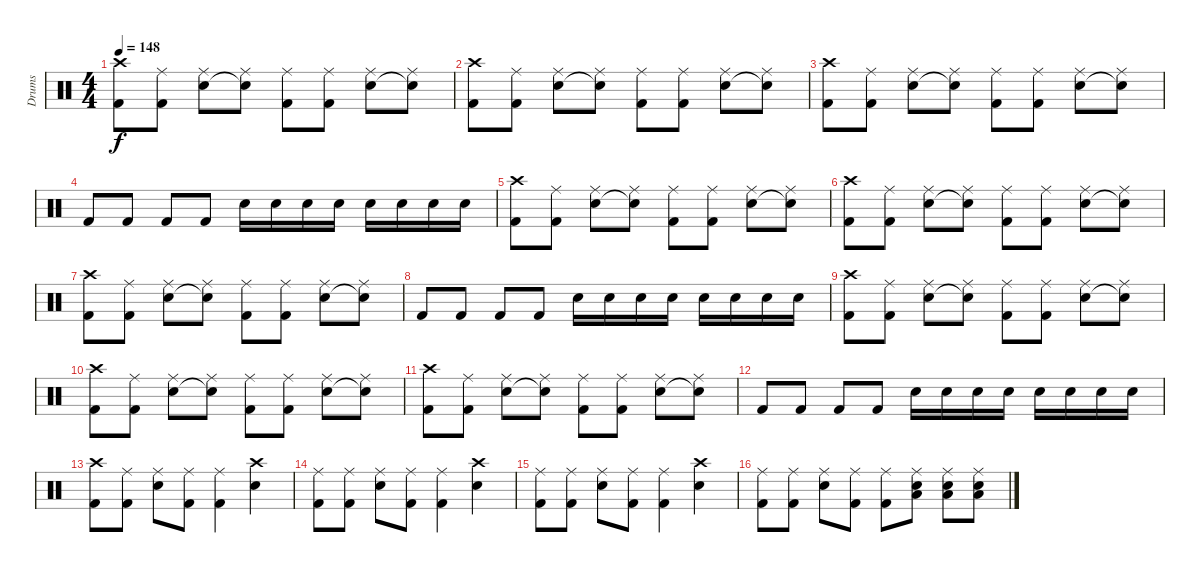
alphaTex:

\track ("Drums" "Drums") {instrument percussion}
\staff {score}
\articulation defaults
\ts (4 4)
\tempo 148
\clef neutral
\ks c
("Crash high (hit)" "Kick (hit) 2").8{dy f} ("Ride (middle)" "Kick (hit) 2").8 ("Ride (middle)" "Snare (hit) 2").8 ("Ride (middle)" "Snare (hit)"{t}).8 ("Ride (middle)" "Kick (hit) 2").8 ("Ride (middle)" "Kick (hit) 2").8 ("Ride (middle)" "Snare (hit) 2").8 ("Ride (middle)" "Snare (hit)"{t}).8 |
("Crash high (hit)" "Kick (hit) 2").8 ("Ride (middle)" "Kick (hit) 2").8 ("Ride (middle)" "Snare (hit) 2").8 ("Ride (middle)" "Snare (hit)"{t}).8 ("Ride (middle)" "Kick (hit) 2").8 ("Ride (middle)" "Kick (hit) 2").8 ("Ride (middle)" "Snare (hit) 2").8 ("Ride (middle)" "Snare (hit)"{t}).8 |
("Crash high (hit)" "Kick (hit) 2").8 ("Ride (middle)" "Kick (hit) 2").8 ("Ride (middle)" "Snare (hit) 2").8 ("Ride (middle)" "Snare (hit)"{t}).8 ("Ride (middle)" "Kick (hit) 2").8 ("Ride (middle)" "Kick (hit) 2").8 ("Ride (middle)" "Snare (hit) 2").8 ("Ride (middle)" "Snare (hit)"{t}).8 |
"Kick (hit) 2".8 "Kick (hit) 2".8 "Kick (hit) 2".8 "Kick (hit) 2".8 "Snare (hit) 2".16 "Snare (hit) 2".16 "Snare (hit) 2".16 "Snare (hit) 2".16 "Snare (hit) 2".16 "Snare (hit) 2".16 "Snare (hit) 2".16 "Snare (hit) 2".16 |
("Crash high (hit)" "Kick (hit) 2").8 ("Ride (middle)" "Kick (hit) 2").8 ("Ride (middle)" "Snare (hit) 2").8 ("Ride (middle)" "Snare (hit)"{t}).8 ("Ride (middle)" "Kick (hit) 2").8 ("Ride (middle)" "Kick (hit) 2").8 ("Ride (middle)" "Snare (hit) 2").8 ("Ride (middle)" "Snare (hit)"{t}).8 |
("Crash high (hit)" "Kick (hit) 2").8 ("Ride (middle)" "Kick (hit) 2").8 ("Ride (middle)" "Snare (hit) 2").8 ("Ride (middle)" "Snare (hit)"{t}).8 ("Ride (middle)" "Kick (hit) 2").8 ("Ride (middle)" "Kick (hit) 2").8 ("Ride (middle)" "Snare (hit) 2").8 ("Ride (middle)" "Snare (hit)"{t}).8 |
("Crash high (hit)" "Kick (hit) 2").8 ("Ride (middle)" "Kick (hit) 2").8 ("Ride (middle)" "Snare (hit) 2").8 ("Ride (middle)" "Snare (hit)"{t}).8 ("Ride (middle)" "Kick (hit) 2").8 ("Ride (middle)" "Kick (hit) 2").8 ("Ride (middle)" "Snare (hit) 2").8 ("Ride (middle)" "Snare (hit)"{t}).8 |
"Kick (hit) 2".8 "Kick (hit) 2".8 "Kick (hit) 2".8 "Kick (hit) 2".8 "Snare (hit) 2".16 "Snare (hit) 2".16 "Snare (hit) 2".16 "Snare (hit) 2".16 "Snare (hit) 2".16 "Snare (hit) 2".16 "Snare (hit) 2".16 "Snare (hit) 2".16 |
("Crash high (hit)" "Kick (hit) 2").8 ("Ride (middle)" "Kick (hit) 2").8 ("Ride (middle)" "Snare (hit) 2").8 ("Ride (middle)" "Snare (hit)"{t}).8 ("Ride (middle)" "Kick (hit) 2").8 ("Ride (middle)" "Kick (hit) 2").8 ("Ride (middle)" "Snare (hit) 2").8 ("Ride (middle)" "Snare (hit)"{t}).8 |
("Crash high (hit)" "Kick (hit) 2").8 ("Ride (middle)" "Kick (hit) 2").8 ("Ride (middle)" "Snare (hit) 2").8 ("Ride (middle)" "Snare (hit)"{t}).8 ("Ride (middle)" "Kick (hit) 2").8 ("Ride (middle)" "Kick (hit) 2").8 ("Ride (middle)" "Snare (hit) 2").8 ("Ride (middle)" "Snare (hit)"{t}).8 |
("Crash high (hit)" "Kick (hit) 2").8 ("Ride (middle)" "Kick (hit) 2").8 ("Ride (middle)" "Snare (hit) 2").8 ("Ride (middle)" "Snare (hit)"{t}).8 ("Ride (middle)" "Kick (hit) 2").8 ("Ride (middle)" "Kick (hit) 2").8 ("Ride (middle)" "Snare (hit) 2").8 ("Ride (middle)" "Snare (hit)"{t}).8 |
"Kick (hit) 2".8 "Kick (hit) 2".8 "Kick (hit) 2".8 "Kick (hit) 2".8 "Snare (hit) 2".16 "Snare (hit) 2".16 "Snare (hit) 2".16 "Snare (hit) 2".16 "Snare (hit) 2".16 "Snare (hit) 2".16 "Snare (hit) 2".16 "Snare (hit) 2".16 |
("Crash high (hit)" "Kick (hit) 2").8 ("Ride (middle)" "Kick (hit) 2").8 ("Ride (middle)" "Snare (hit) 2").8 ("Ride (middle)" "Kick (hit) 2").8 ("Ride (middle)" "Kick (hit) 2").4 ("Crash high (hit)" "Snare (hit) 2").4 |
("Ride (middle)" "Kick (hit) 2").8 ("Ride (middle)" "Kick (hit) 2").8 ("Ride (middle)" "Snare (hit) 2").8 ("Ride (middle)" "Kick (hit) 2").8 ("Ride (middle)" "Kick (hit) 2").4 ("Crash high (hit)" "Snare (hit) 2").4 |
("Ride (middle)" "Kick (hit) 2").8 ("Ride (middle)" "Kick (hit) 2").8 ("Ride (middle)" "Snare (hit) 2").8 ("Ride (middle)" "Kick (hit) 2").8 ("Ride (middle)" "Kick (hit) 2").4 ("Crash high (hit)" "Snare (hit) 2").4 |
("Ride (middle)" "Kick (hit) 2").8 ("Ride (middle)" "Kick (hit) 2").8 ("Ride (middle)" "Snare (hit) 2").8 ("Ride (middle)" "Kick (hit) 2").8 ("Ride (middle)" "Kick (hit) 2").8 ("Ride (middle)" "Low Floor Tom (hit)" "Snare (hit) 2").8 ("Ride (middle)" "Low Floor Tom (hit)" "Snare (hit) 2").8 ("Ride (middle)" "Low Floor Tom (hit)" "Snare (hit) 2").8
